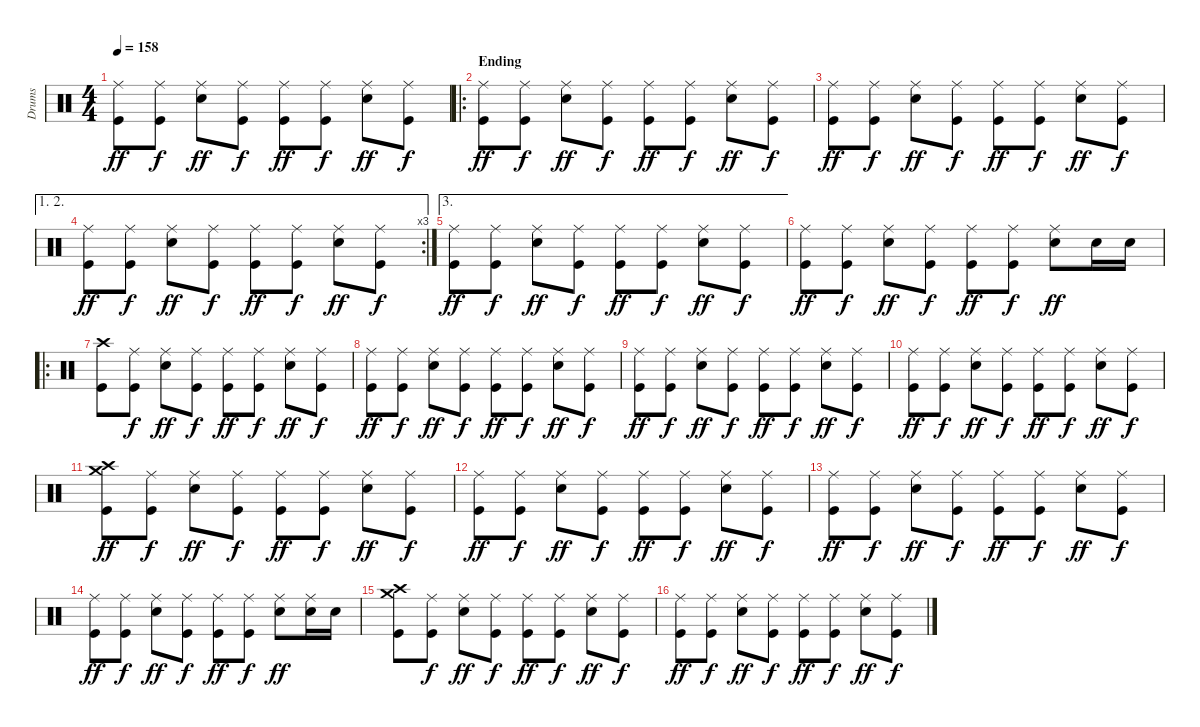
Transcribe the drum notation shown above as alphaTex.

\track ("Drums" "Drums") {instrument percussion}
\staff {score}
\articulation defaults
\ts (4 4)
\tempo 158
\clef neutral
\ks c
("Ride (middle)" "Kick (hit)").8{dy ff} ("Ride (middle)" "Kick (hit)").8{dy f} ("Ride (middle)" "Electric Snare (hit)").8{dy ff} ("Ride (middle)" "Kick (hit)").8{dy f} ("Ride (middle)" "Kick (hit)").8{dy ff} ("Ride (middle)" "Kick (hit)").8{dy f} ("Ride (middle)" "Electric Snare (hit)").8{dy ff} ("Ride (middle)" "Kick (hit)").8{dy f} |
\ro
\section ("" "Ending")
("Ride (middle)" "Kick (hit)").8{dy ff} ("Ride (middle)" "Kick (hit)").8{dy f} ("Ride (middle)" "Electric Snare (hit)").8{dy ff} ("Ride (middle)" "Kick (hit)").8{dy f} ("Ride (middle)" "Kick (hit)").8{dy ff} ("Ride (middle)" "Kick (hit)").8{dy f} ("Ride (middle)" "Electric Snare (hit)").8{dy ff} ("Ride (middle)" "Kick (hit)").8{dy f} |
("Ride (middle)" "Kick (hit)").8{dy ff} ("Ride (middle)" "Kick (hit)").8{dy f} ("Ride (middle)" "Electric Snare (hit)").8{dy ff} ("Ride (middle)" "Kick (hit)").8{dy f} ("Ride (middle)" "Kick (hit)").8{dy ff} ("Ride (middle)" "Kick (hit)").8{dy f} ("Ride (middle)" "Electric Snare (hit)").8{dy ff} ("Ride (middle)" "Kick (hit)").8{dy f} |
\ae (1 2)
\rc 3
("Ride (middle)" "Kick (hit)").8{dy ff} ("Ride (middle)" "Kick (hit)").8{dy f} ("Ride (middle)" "Electric Snare (hit)").8{dy ff} ("Ride (middle)" "Kick (hit)").8{dy f} ("Ride (middle)" "Kick (hit)").8{dy ff} ("Ride (middle)" "Kick (hit)").8{dy f} ("Ride (middle)" "Electric Snare (hit)").8{dy ff} ("Ride (middle)" "Kick (hit)").8{dy f} |
\ae 3
("Ride (middle)" "Kick (hit)").8{dy ff} ("Ride (middle)" "Kick (hit)").8{dy f} ("Ride (middle)" "Electric Snare (hit)").8{dy ff} ("Ride (middle)" "Kick (hit)").8{dy f} ("Ride (middle)" "Kick (hit)").8{dy ff} ("Ride (middle)" "Kick (hit)").8{dy f} ("Ride (middle)" "Electric Snare (hit)").8{dy ff} ("Ride (middle)" "Kick (hit)").8{dy f} |
("Ride (middle)" "Kick (hit)").8{dy ff} ("Ride (middle)" "Kick (hit)").8{dy f} ("Ride (middle)" "Electric Snare (hit)").8{dy ff} ("Ride (middle)" "Kick (hit)").8{dy f} ("Ride (middle)" "Kick (hit)").8{dy ff} ("Ride (middle)" "Kick (hit)").8{dy f} ("Ride (middle)" "Electric Snare (hit)").8{dy ff} "Electric Snare (hit)".16 "Electric Snare (hit)".16 |
\ro
("Crash high (hit)" "Kick (hit)").8 ("Ride (middle)" "Kick (hit)").8{dy f} ("Ride (middle)" "Electric Snare (hit)").8{dy ff} ("Ride (middle)" "Kick (hit)").8{dy f} ("Ride (middle)" "Kick (hit)").8{dy ff} ("Ride (middle)" "Kick (hit)").8{dy f} ("Ride (middle)" "Electric Snare (hit)").8{dy ff} ("Ride (middle)" "Kick (hit)").8{dy f} |
("Ride (middle)" "Kick (hit)").8{dy ff} ("Ride (middle)" "Kick (hit)").8{dy f} ("Ride (middle)" "Electric Snare (hit)").8{dy ff} ("Ride (middle)" "Kick (hit)").8{dy f} ("Ride (middle)" "Kick (hit)").8{dy ff} ("Ride (middle)" "Kick (hit)").8{dy f} ("Ride (middle)" "Electric Snare (hit)").8{dy ff} ("Ride (middle)" "Kick (hit)").8{dy f} |
("Ride (middle)" "Kick (hit)").8{dy ff} ("Ride (middle)" "Kick (hit)").8{dy f} ("Ride (middle)" "Electric Snare (hit)").8{dy ff} ("Ride (middle)" "Kick (hit)").8{dy f} ("Ride (middle)" "Kick (hit)").8{dy ff} ("Ride (middle)" "Kick (hit)").8{dy f} ("Ride (middle)" "Electric Snare (hit)").8{dy ff} ("Ride (middle)" "Kick (hit)").8{dy f} |
("Ride (middle)" "Kick (hit)").8{dy ff} ("Ride (middle)" "Kick (hit)").8{dy f} ("Ride (middle)" "Electric Snare (hit)").8{dy ff} ("Ride (middle)" "Kick (hit)").8{dy f} ("Ride (middle)" "Kick (hit)").8{dy ff} ("Ride (middle)" "Kick (hit)").8{dy f} ("Ride (middle)" "Electric Snare (hit)").8{dy ff} ("Ride (middle)" "Kick (hit)").8{dy f} |
("Crash high (hit)" "Crash medium (hit)" "Kick (hit)").8{dy ff} ("Ride (middle)" "Kick (hit)").8{dy f} ("Ride (middle)" "Electric Snare (hit)").8{dy ff} ("Ride (middle)" "Kick (hit)").8{dy f} ("Ride (middle)" "Kick (hit)").8{dy ff} ("Ride (middle)" "Kick (hit)").8{dy f} ("Ride (middle)" "Electric Snare (hit)").8{dy ff} ("Ride (middle)" "Kick (hit)").8{dy f} |
("Ride (middle)" "Kick (hit)").8{dy ff} ("Ride (middle)" "Kick (hit)").8{dy f} ("Ride (middle)" "Electric Snare (hit)").8{dy ff} ("Ride (middle)" "Kick (hit)").8{dy f} ("Ride (middle)" "Kick (hit)").8{dy ff} ("Ride (middle)" "Kick (hit)").8{dy f} ("Ride (middle)" "Electric Snare (hit)").8{dy ff} ("Ride (middle)" "Kick (hit)").8{dy f} |
("Ride (middle)" "Kick (hit)").8{dy ff} ("Ride (middle)" "Kick (hit)").8{dy f} ("Ride (middle)" "Electric Snare (hit)").8{dy ff} ("Ride (middle)" "Kick (hit)").8{dy f} ("Ride (middle)" "Kick (hit)").8{dy ff} ("Ride (middle)" "Kick (hit)").8{dy f} ("Ride (middle)" "Electric Snare (hit)").8{dy ff} ("Ride (middle)" "Kick (hit)").8{dy f} |
("Ride (middle)" "Kick (hit)").8{dy ff} ("Ride (middle)" "Kick (hit)").8{dy f} ("Ride (middle)" "Electric Snare (hit)").8{dy ff} ("Ride (middle)" "Kick (hit)").8{dy f} ("Ride (middle)" "Kick (hit)").8{dy ff} ("Ride (middle)" "Kick (hit)").8{dy f} ("Ride (middle)" "Electric Snare (hit)").8{dy ff} ("Ride (middle)" "Electric Snare (hit)").16 "Electric Snare (hit)".16 |
("Crash medium (hit)" "Crash high (hit)" "Kick (hit)").8 ("Ride (middle)" "Kick (hit)").8{dy f} ("Ride (middle)" "Electric Snare (hit)").8{dy ff} ("Ride (middle)" "Kick (hit)").8{dy f} ("Ride (middle)" "Kick (hit)").8{dy ff} ("Ride (middle)" "Kick (hit)").8{dy f} ("Ride (middle)" "Electric Snare (hit)").8{dy ff} ("Ride (middle)" "Kick (hit)").8{dy f} |
("Ride (middle)" "Kick (hit)").8{dy ff} ("Ride (middle)" "Kick (hit)").8{dy f} ("Ride (middle)" "Electric Snare (hit)").8{dy ff} ("Ride (middle)" "Kick (hit)").8{dy f} ("Ride (middle)" "Kick (hit)").8{dy ff} ("Ride (middle)" "Kick (hit)").8{dy f} ("Ride (middle)" "Electric Snare (hit)").8{dy ff} ("Ride (middle)" "Kick (hit)").8{dy f}
